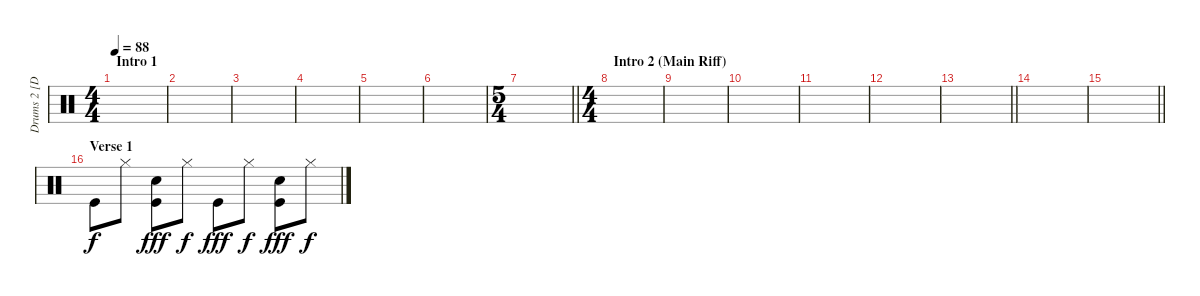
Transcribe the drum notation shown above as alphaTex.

\track ("Drums 2 [Doom]" "Drums 2 [D") {instrument percussion}
\staff {score}
\articulation defaults
\ts (4 4)
\section ("" "Intro 1")
\tempo 88
\clef neutral
\ks c
|
|
|
|
|
|
\ts (5 4)
\barLineRight lightlight
|
\ts (4 4)
\section ("" "Intro 2 (Main Riff)")
|
|
|
|
|
\barLineRight lightlight
|
|
\barLineRight lightlight
|
\section ("" "Verse 1")
"Kick (hit)".8 "Hi-Hat (closed)".8{dy f} ("Snare (hit) 2" "Kick (hit)").8{dy fff} "Hi-Hat (closed)".8{dy f} "Kick (hit)".8{dy fff} "Hi-Hat (closed)".8{dy f} ("Snare (hit) 2" "Kick (hit)").8{dy fff} "Hi-Hat (closed)".8{dy f}
